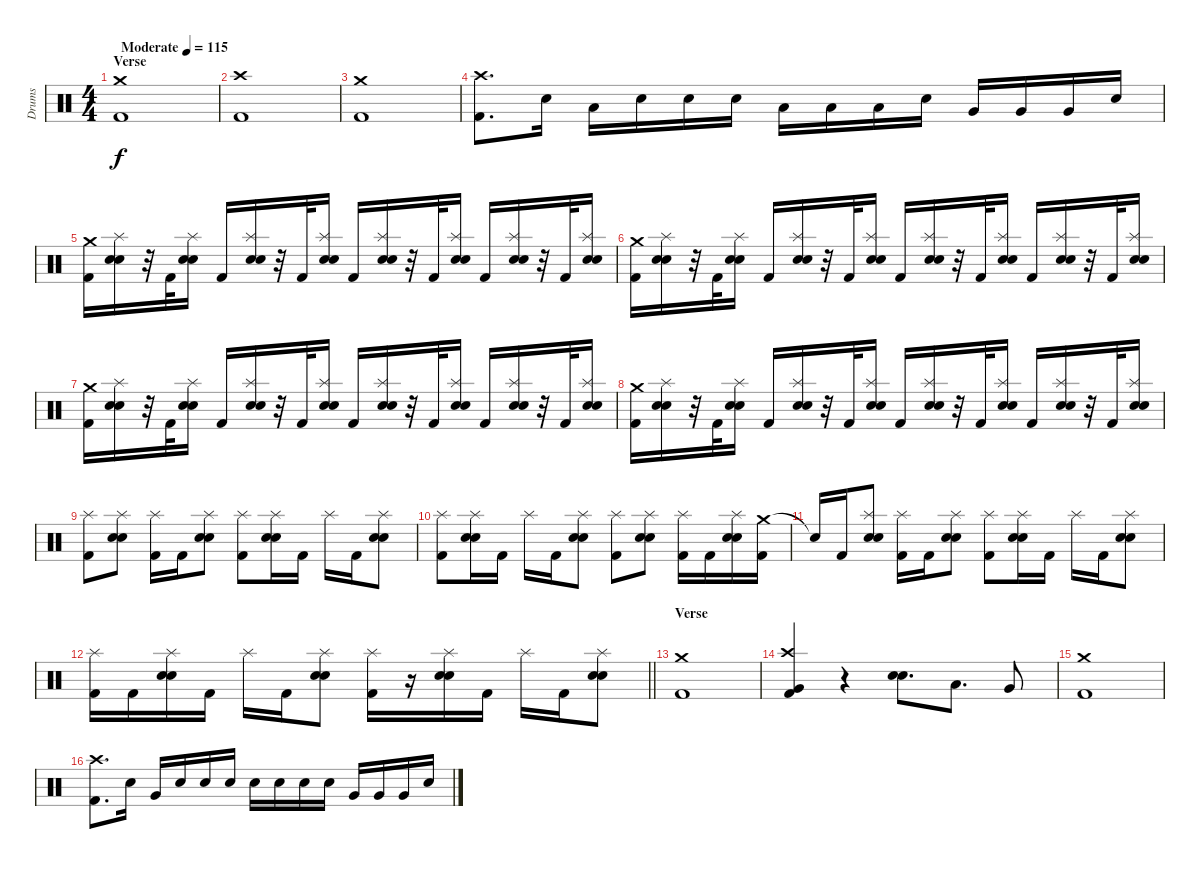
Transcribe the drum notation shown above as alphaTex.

\track ("Drums" "Drums") {instrument percussion}
\staff {score}
\articulation defaults
\ts (4 4)
\section ("" "Verse")
\tempo (115 "Moderate")
\clef neutral
\ks c
("Crash medium (hit)" "Kick (hit) 2").1{dy f} |
("Crash high (hit)" "Kick (hit) 2").1 |
("Crash medium (hit)" "Kick (hit) 2").1 |
("Crash high (hit)" "Kick (hit) 2").8{d} "Electric Snare (hit)".16 "Low Tom (hit)".16 "Electric Snare (hit)".16 "Electric Snare (hit)".16 "Electric Snare (hit)".16 "Low Tom (hit)".16 "Low Tom (hit)".16 "Low Tom (hit)".16 "Electric Snare (hit)".16 "Very Low Tom (hit)".16 "Very Low Tom (hit)".16 "Very Low Tom (hit)".16 "Electric Snare (hit)".16 |
("Crash medium (hit)" "Kick (hit) 2").16 ("Splash (hit)" "Electric Snare (hit)" "Snare (hit) 2").16 r.32 "Kick (hit) 2".32 ("Splash (hit)" "Electric Snare (hit)" "Snare (hit) 2").16 "Kick (hit) 2".16 ("Splash (hit)" "Electric Snare (hit)" "Snare (hit) 2").16 r.32 "Kick (hit) 2".32 ("Splash (hit)" "Electric Snare (hit)" "Snare (hit) 2").16 "Kick (hit) 2".16 ("Splash (hit)" "Electric Snare (hit)" "Snare (hit) 2").16 r.32 "Kick (hit) 2".32 ("Splash (hit)" "Electric Snare (hit)" "Snare (hit) 2").16 "Kick (hit) 2".16 ("Splash (hit)" "Electric Snare (hit)" "Snare (hit) 2").16 r.32 "Kick (hit) 2".32 ("Splash (hit)" "Electric Snare (hit)" "Snare (hit) 2").16 |
("Crash medium (hit)" "Kick (hit) 2").16 ("Splash (hit)" "Electric Snare (hit)" "Snare (hit) 2").16 r.32 "Kick (hit) 2".32 ("Splash (hit)" "Electric Snare (hit)" "Snare (hit) 2").16 "Kick (hit) 2".16 ("Splash (hit)" "Electric Snare (hit)" "Snare (hit) 2").16 r.32 "Kick (hit) 2".32 ("Splash (hit)" "Electric Snare (hit)" "Snare (hit) 2").16 "Kick (hit) 2".16 ("Splash (hit)" "Electric Snare (hit)" "Snare (hit) 2").16 r.32 "Kick (hit) 2".32 ("Splash (hit)" "Electric Snare (hit)" "Snare (hit) 2").16 "Kick (hit) 2".16 ("Splash (hit)" "Electric Snare (hit)" "Snare (hit) 2").16 r.32 "Kick (hit) 2".32 ("Splash (hit)" "Electric Snare (hit)" "Snare (hit) 2").16 |
("Crash medium (hit)" "Kick (hit) 2").16 ("Splash (hit)" "Electric Snare (hit)" "Snare (hit) 2").16 r.32 "Kick (hit) 2".32 ("Splash (hit)" "Electric Snare (hit)" "Snare (hit) 2").16 "Kick (hit) 2".16 ("Splash (hit)" "Electric Snare (hit)" "Snare (hit) 2").16 r.32 "Kick (hit) 2".32 ("Splash (hit)" "Electric Snare (hit)" "Snare (hit) 2").16 "Kick (hit) 2".16 ("Splash (hit)" "Electric Snare (hit)" "Snare (hit) 2").16 r.32 "Kick (hit) 2".32 ("Splash (hit)" "Electric Snare (hit)" "Snare (hit) 2").16 "Kick (hit) 2".16 ("Splash (hit)" "Electric Snare (hit)" "Snare (hit) 2").16 r.32 "Kick (hit) 2".32 ("Splash (hit)" "Electric Snare (hit)" "Snare (hit) 2").16 |
("Crash medium (hit)" "Kick (hit) 2").16 ("Splash (hit)" "Electric Snare (hit)" "Snare (hit) 2").16 r.32 "Kick (hit) 2".32 ("Splash (hit)" "Electric Snare (hit)" "Snare (hit) 2").16 "Kick (hit) 2".16 ("Splash (hit)" "Electric Snare (hit)" "Snare (hit) 2").16 r.32 "Kick (hit) 2".32 ("Splash (hit)" "Electric Snare (hit)" "Snare (hit) 2").16 "Kick (hit) 2".16 ("Splash (hit)" "Electric Snare (hit)" "Snare (hit) 2").16 r.32 "Kick (hit) 2".32 ("Splash (hit)" "Electric Snare (hit)" "Snare (hit) 2").16 "Kick (hit) 2".16 ("Splash (hit)" "Electric Snare (hit)" "Snare (hit) 2").16 r.32 "Kick (hit) 2".32 ("Splash (hit)" "Electric Snare (hit)" "Snare (hit) 2").16 |
("Splash (hit)" "Kick (hit) 2").8 ("Splash (hit)" "Electric Snare (hit)" "Snare (hit) 2").8 ("Splash (hit)" "Kick (hit) 2").16 "Kick (hit) 2".16 ("Splash (hit)" "Electric Snare (hit)" "Snare (hit) 2").8 ("Splash (hit)" "Kick (hit) 2").8 ("Splash (hit)" "Electric Snare (hit)" "Snare (hit) 2").16 "Kick (hit) 2".16 "Splash (hit)".16 "Kick (hit) 2".16 ("Splash (hit)" "Electric Snare (hit)" "Snare (hit) 2").8 |
("Splash (hit)" "Kick (hit) 2").8 ("Splash (hit)" "Electric Snare (hit)" "Snare (hit) 2").16 "Kick (hit) 2".16 "Splash (hit)".16 "Kick (hit) 2".16 ("Splash (hit)" "Electric Snare (hit)" "Snare (hit) 2").8 ("Splash (hit)" "Kick (hit) 2").8 ("Splash (hit)" "Electric Snare (hit)" "Snare (hit) 2").8 ("Splash (hit)" "Kick (hit) 2").16 "Kick (hit) 2".16 ("Splash (hit)" "Electric Snare (hit)" "Snare (hit) 2").16 ("Crash medium (hit)" "Kick (hit) 2").16 |
"Snare (hit)"{t}.16 "Kick (hit) 2".16 ("Splash (hit)" "Electric Snare (hit)" "Snare (hit) 2").8 ("Splash (hit)" "Kick (hit) 2").16 "Kick (hit) 2".16 ("Splash (hit)" "Electric Snare (hit)" "Snare (hit) 2").8 ("Splash (hit)" "Kick (hit) 2").8 ("Splash (hit)" "Electric Snare (hit)" "Snare (hit) 2").16 "Kick (hit) 2".16 "Splash (hit)".16 "Kick (hit) 2".16 ("Splash (hit)" "Electric Snare (hit)" "Snare (hit) 2").8 |
\barLineRight lightlight
("Splash (hit)" "Kick (hit) 2").16 "Kick (hit) 2".16 ("Splash (hit)" "Electric Snare (hit)" "Snare (hit) 2").16 "Kick (hit) 2".16 "Splash (hit)".16 "Kick (hit) 2".16 ("Splash (hit)" "Electric Snare (hit)" "Snare (hit) 2").8 ("Splash (hit)" "Kick (hit) 2").16 r.16 ("Splash (hit)" "Electric Snare (hit)" "Snare (hit) 2").16 "Kick (hit) 2".16 "Splash (hit)".16 "Kick (hit) 2".16 ("Splash (hit)" "Electric Snare (hit)" "Snare (hit) 2").8 |
\section ("" "Verse")
("Crash medium (hit)" "Kick (hit) 2").1 |
("Crash high (hit)" "Very Low Tom (hit)" "Kick (hit) 2").4 r.4 ("Electric Snare (hit)" "Snare (hit) 2").8{d} "Low Tom (hit)".8{d} "Very Low Tom (hit)".8 |
("Crash medium (hit)" "Kick (hit) 2").1 |
("Crash high (hit)" "Kick (hit) 2").8{d} "Electric Snare (hit)".16 "Very Low Tom (hit)".16 "Electric Snare (hit)".16 "Electric Snare (hit)".16 "Electric Snare (hit)".16 "Electric Snare (hit)".16 "Electric Snare (hit)".16 "Electric Snare (hit)".16 "Electric Snare (hit)".16 "Very Low Tom (hit)".16 "Very Low Tom (hit)".16 "Very Low Tom (hit)".16 "Electric Snare (hit)".16
